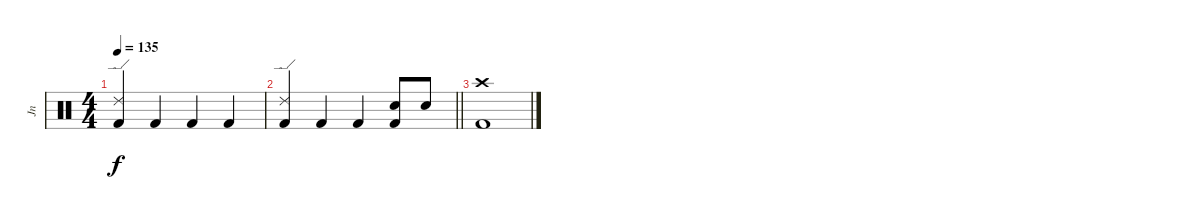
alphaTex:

\track ("Jn" "Jn") {instrument percussion}
\staff {score}
\articulation defaults
\ts (4 4)
\tempo 135
\clef neutral
\ks c
("Ride (edge) 2" "Kick (hit) 2").4{dy f} "Kick (hit) 2".4 "Kick (hit) 2".4 "Kick (hit) 2".4 |
\barLineRight lightlight
("Ride (edge) 2" "Kick (hit) 2").4 "Kick (hit) 2".4 "Kick (hit) 2".4 ("Electric Snare (hit)" "Kick (hit) 2").8 "Electric Snare (hit)".8 |
("Crash high (hit)" "Kick (hit) 2").1
